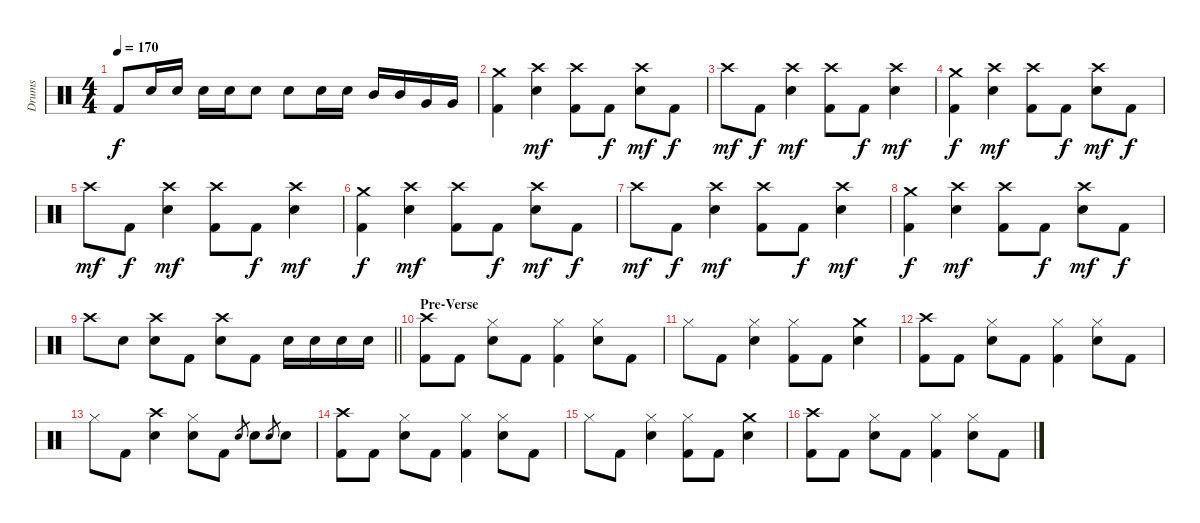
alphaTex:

\track ("Drums" "Drums") {instrument percussion}
\staff {score}
\articulation defaults
\ts (4 4)
\tempo 170
\clef neutral
\ks c "Kick (hit) 2".8{dy f} "Electric Snare (hit)".16 "Electric Snare (hit)".16 "Electric Snare (hit)".16 "Electric Snare (hit)".16 "Electric Snare (hit)".8 "Electric Snare (hit)".8 "Electric Snare (hit)".16 "Electric Snare (hit)".16 "Mid Tom (hit)".16 "Mid Tom (hit)".16 "Very Low Tom (hit)".16 "Very Low Tom (hit)".16
|
("Crash medium (hit)" "Kick (hit) 2").4 ("Crash high (hit)" "Electric Snare (hit)").4{dy mf} ("Crash high (hit)" "Kick (hit) 2").8 "Kick (hit) 2".8{dy f} ("Crash high (hit)" "Electric Snare (hit)").8{dy mf} "Kick (hit) 2".8{dy f} |
"Crash high (hit)".8{dy mf} "Kick (hit) 2".8{dy f} ("Crash high (hit)" "Electric Snare (hit)").4{dy mf} ("Crash high (hit)" "Kick (hit) 2").8 "Kick (hit) 2".8{dy f} ("Crash high (hit)" "Electric Snare (hit)").4{dy mf} |
("Crash medium (hit)" "Kick (hit) 2").4{dy f} ("Crash high (hit)" "Electric Snare (hit)").4{dy mf} ("Crash high (hit)" "Kick (hit) 2").8 "Kick (hit) 2".8{dy f} ("Crash high (hit)" "Electric Snare (hit)").8{dy mf} "Kick (hit) 2".8{dy f} |
"Crash high (hit)".8{dy mf} "Kick (hit) 2".8{dy f} ("Crash high (hit)" "Electric Snare (hit)").4{dy mf} ("Crash high (hit)" "Kick (hit) 2").8 "Kick (hit) 2".8{dy f} ("Crash high (hit)" "Electric Snare (hit)").4{dy mf} |
("Crash medium (hit)" "Kick (hit) 2").4{dy f} ("Crash high (hit)" "Electric Snare (hit)").4{dy mf} ("Crash high (hit)" "Kick (hit) 2").8 "Kick (hit) 2".8{dy f} ("Crash high (hit)" "Electric Snare (hit)").8{dy mf} "Kick (hit) 2".8{dy f} |
"Crash high (hit)".8{dy mf} "Kick (hit) 2".8{dy f} ("Crash high (hit)" "Electric Snare (hit)").4{dy mf} ("Crash high (hit)" "Kick (hit) 2").8 "Kick (hit) 2".8{dy f} ("Crash high (hit)" "Electric Snare (hit)").4{dy mf} |
("Crash medium (hit)" "Kick (hit) 2").4{dy f} ("Crash high (hit)" "Electric Snare (hit)").4{dy mf} ("Crash high (hit)" "Kick (hit) 2").8 "Kick (hit) 2".8{dy f} ("Crash high (hit)" "Electric Snare (hit)").8{dy mf} "Kick (hit) 2".8{dy f} |
\barLineRight lightlight "Crash high (hit)".8 "Electric Snare (hit)".8
("Crash high (hit)" "Electric Snare (hit)").8 "Kick (hit) 2".8 ("Crash high (hit)" "Electric Snare (hit)").8 "Kick (hit) 2".8 "Electric Snare (hit)".16 "Electric Snare (hit)".16 "Electric Snare (hit)".16 "Electric Snare (hit)".16 |
\section ("" "Pre-Verse")
("Crash high (hit)" "Kick (hit) 2").8 "Kick (hit) 2".8 ("Hi-Hat (closed)" "Electric Snare (hit)").8 "Kick (hit) 2".8 ("Hi-Hat (closed)" "Kick (hit) 2").4 ("Hi-Hat (closed)" "Electric Snare (hit)").8 "Kick (hit) 2".8 |
"Hi-Hat (closed)".8 "Kick (hit) 2".8 ("Hi-Hat (closed)" "Electric Snare (hit)").4 ("Hi-Hat (closed)" "Kick (hit) 2").8 "Kick (hit) 2".8 ("Crash medium (hit)" "Electric Snare (hit)").4 |
("Crash high (hit)" "Kick (hit) 2").8 "Kick (hit) 2".8 ("Hi-Hat (closed)" "Electric Snare (hit)").8 "Kick (hit) 2".8 ("Hi-Hat (closed)" "Kick (hit) 2").4 ("Hi-Hat (closed)" "Electric Snare (hit)").8 "Kick (hit) 2".8 |
"Hi-Hat (closed)".8 "Kick (hit) 2".8 ("Crash high (hit)" "Electric Snare (hit)").4 ("Hi-Hat (closed)" "Electric Snare (hit)").8 "Kick (hit) 2".8 "Electric Snare (hit)".8{gr} "Electric Snare (hit)".8 "Electric Snare (hit)".8{gr} "Electric Snare (hit)".8 |
("Crash high (hit)" "Kick (hit) 2").8 "Kick (hit) 2".8 ("Hi-Hat (closed)" "Electric Snare (hit)").8 "Kick (hit) 2".8 ("Hi-Hat (closed)" "Kick (hit) 2").4 ("Hi-Hat (closed)" "Electric Snare (hit)").8 "Kick (hit) 2".8 |
"Hi-Hat (closed)".8 "Kick (hit) 2".8 ("Hi-Hat (closed)" "Electric Snare (hit)").4 ("Hi-Hat (closed)" "Kick (hit) 2").8 "Kick (hit) 2".8 ("Crash medium (hit)" "Electric Snare (hit)").4 |
("Crash high (hit)" "Kick (hit) 2").8 "Kick (hit) 2".8 ("Hi-Hat (closed)" "Electric Snare (hit)").8 "Kick (hit) 2".8 ("Hi-Hat (closed)" "Kick (hit) 2").4 ("Hi-Hat (closed)" "Electric Snare (hit)").8 "Kick (hit) 2".8
